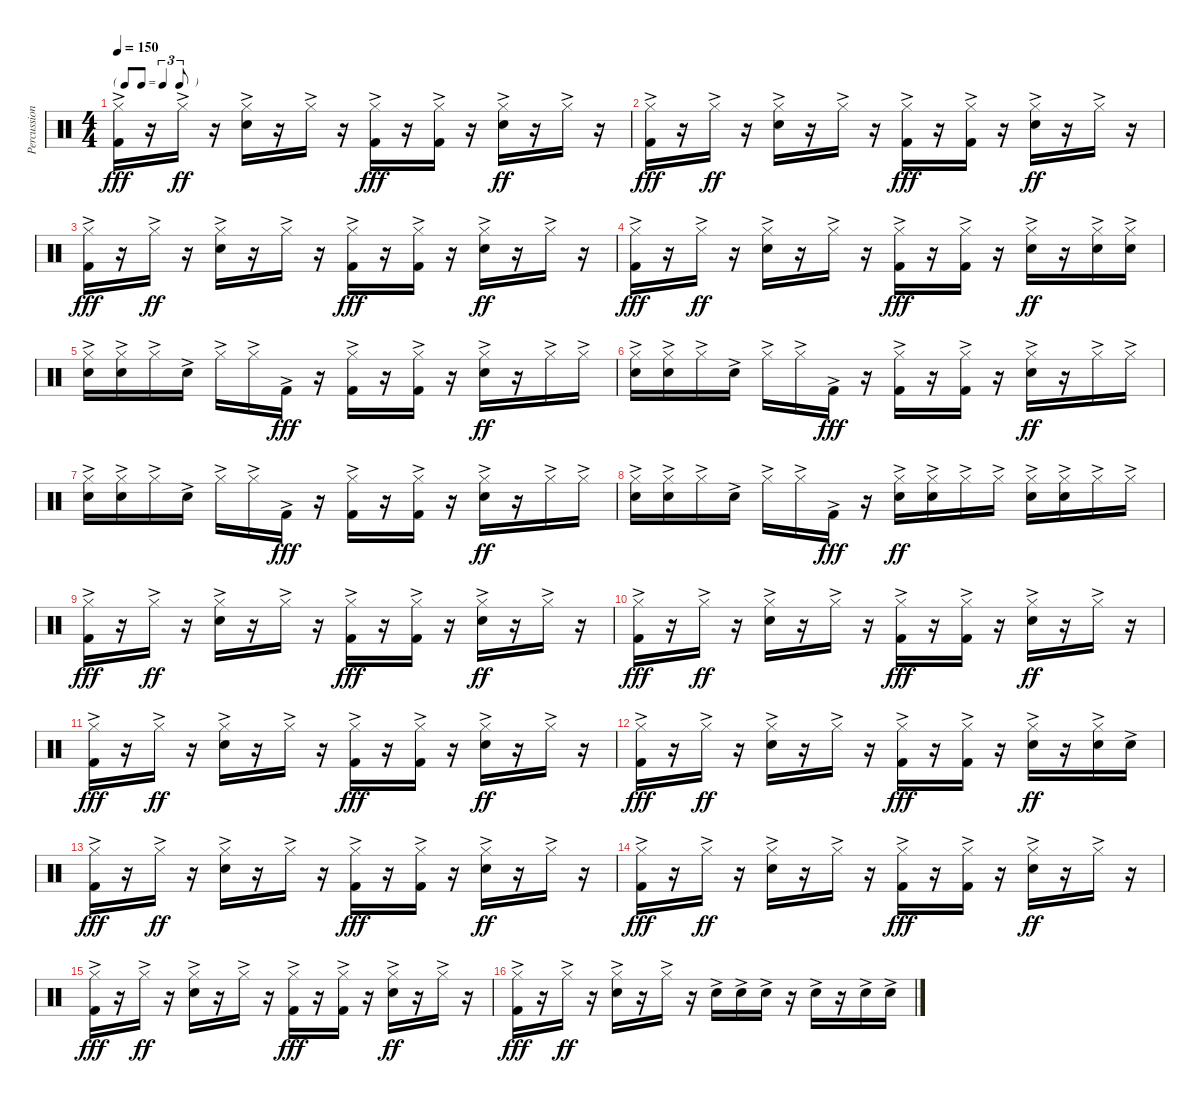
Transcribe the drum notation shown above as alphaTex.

\track ("Percussion" "Percussion") {instrument percussion}
\staff {score}
\articulation defaults
\ts (4 4)
\tf triplet8th
\tempo 150
\clef neutral
\ks c
("Hi-Hat (closed)"{ac} "Kick (hit) 2"{ac}).16{dy fff} r.16 "Hi-Hat (closed)"{ac}.16{dy ff} r.16 ("Hi-Hat (closed)"{ac} "Snare (hit) 2"{ac}).16 r.16 "Hi-Hat (closed)"{ac}.16 r.16 ("Hi-Hat (closed)"{ac} "Kick (hit) 2"{ac}).16{dy fff} r.16 ("Hi-Hat (closed)"{ac} "Kick (hit) 2"{ac}).16 r.16 ("Hi-Hat (closed)"{ac} "Snare (hit) 2"{ac}).16{dy ff} r.16 "Hi-Hat (closed)"{ac}.16 r.16 |
("Hi-Hat (closed)"{ac} "Kick (hit) 2"{ac}).16{dy fff} r.16 "Hi-Hat (closed)"{ac}.16{dy ff} r.16 ("Hi-Hat (closed)"{ac} "Snare (hit) 2"{ac}).16 r.16 "Hi-Hat (closed)"{ac}.16 r.16 ("Hi-Hat (closed)"{ac} "Kick (hit) 2"{ac}).16{dy fff} r.16 ("Hi-Hat (closed)"{ac} "Kick (hit) 2"{ac}).16 r.16 ("Hi-Hat (closed)"{ac} "Snare (hit) 2"{ac}).16{dy ff} r.16 "Hi-Hat (closed)"{ac}.16 r.16 |
("Hi-Hat (closed)"{ac} "Kick (hit) 2"{ac}).16{dy fff} r.16 "Hi-Hat (closed)"{ac}.16{dy ff} r.16 ("Hi-Hat (closed)"{ac} "Snare (hit) 2"{ac}).16 r.16 "Hi-Hat (closed)"{ac}.16 r.16 ("Hi-Hat (closed)"{ac} "Kick (hit) 2"{ac}).16{dy fff} r.16 ("Hi-Hat (closed)"{ac} "Kick (hit) 2"{ac}).16 r.16 ("Hi-Hat (closed)"{ac} "Snare (hit) 2"{ac}).16{dy ff} r.16 "Hi-Hat (closed)"{ac}.16 r.16 |
("Hi-Hat (closed)"{ac} "Kick (hit) 2"{ac}).16{dy fff} r.16 "Hi-Hat (closed)"{ac}.16{dy ff} r.16 ("Hi-Hat (closed)"{ac} "Snare (hit) 2"{ac}).16 r.16 "Hi-Hat (closed)"{ac}.16 r.16 ("Hi-Hat (closed)"{ac} "Kick (hit) 2"{ac}).16{dy fff} r.16 ("Hi-Hat (closed)"{ac} "Kick (hit) 2"{ac}).16 r.16 ("Hi-Hat (closed)"{ac} "Snare (hit) 2"{ac}).16{dy ff} r.16 ("Hi-Hat (closed)" "Snare (hit) 2"{ac}).16 ("Hi-Hat (closed)" "Snare (hit) 2"{ac}).16 |
("Hi-Hat (closed)"{ac} "Snare (hit) 2"{ac}).16 ("Hi-Hat (closed)"{ac} "Snare (hit) 2"{ac}).16 "Hi-Hat (closed)"{ac}.16 "Snare (hit) 2"{ac}.16 "Hi-Hat (closed)"{ac}.16 "Hi-Hat (closed)"{ac}.16 "Kick (hit) 2"{ac}.16{dy fff} r.16 ("Hi-Hat (closed)"{ac} "Kick (hit) 2"{ac}).16 r.16 ("Hi-Hat (closed)"{ac} "Kick (hit) 2"{ac}).16 r.16 ("Hi-Hat (closed)"{ac} "Snare (hit) 2"{ac}).16{dy ff} r.16 "Hi-Hat (closed)"{ac}.16 "Hi-Hat (closed)"{ac}.16 |
("Hi-Hat (closed)"{ac} "Snare (hit) 2"{ac}).16 ("Hi-Hat (closed)"{ac} "Snare (hit) 2"{ac}).16 "Hi-Hat (closed)"{ac}.16 "Snare (hit) 2"{ac}.16 "Hi-Hat (closed)"{ac}.16 "Hi-Hat (closed)"{ac}.16 "Kick (hit) 2"{ac}.16{dy fff} r.16 ("Hi-Hat (closed)"{ac} "Kick (hit) 2"{ac}).16 r.16 ("Hi-Hat (closed)"{ac} "Kick (hit) 2"{ac}).16 r.16 ("Hi-Hat (closed)"{ac} "Snare (hit) 2"{ac}).16{dy ff} r.16 "Hi-Hat (closed)"{ac}.16 "Hi-Hat (closed)"{ac}.16 |
("Hi-Hat (closed)"{ac} "Snare (hit) 2"{ac}).16 ("Hi-Hat (closed)"{ac} "Snare (hit) 2"{ac}).16 "Hi-Hat (closed)"{ac}.16 "Snare (hit) 2"{ac}.16 "Hi-Hat (closed)"{ac}.16 "Hi-Hat (closed)"{ac}.16 "Kick (hit) 2"{ac}.16{dy fff} r.16 ("Hi-Hat (closed)"{ac} "Kick (hit) 2"{ac}).16 r.16 ("Hi-Hat (closed)"{ac} "Kick (hit) 2"{ac}).16 r.16 ("Hi-Hat (closed)"{ac} "Snare (hit) 2"{ac}).16{dy ff} r.16 "Hi-Hat (closed)"{ac}.16 "Hi-Hat (closed)"{ac}.16 |
("Hi-Hat (closed)"{ac} "Snare (hit) 2"{ac}).16 ("Hi-Hat (closed)"{ac} "Snare (hit) 2"{ac}).16 "Hi-Hat (closed)"{ac}.16 "Snare (hit) 2"{ac}.16 "Hi-Hat (closed)"{ac}.16 "Hi-Hat (closed)"{ac}.16 "Kick (hit) 2"{ac}.16{dy fff} r.16 ("Hi-Hat (closed)"{ac} "Snare (hit) 2"{ac}).16{dy ff} ("Hi-Hat (closed)"{ac} "Snare (hit) 2"{ac}).16 "Hi-Hat (closed)"{ac}.16 "Hi-Hat (closed)"{ac}.16 ("Hi-Hat (closed)"{ac} "Snare (hit) 2"{ac}).16 ("Hi-Hat (closed)"{ac} "Snare (hit) 2"{ac}).16 "Hi-Hat (closed)"{ac}.16 "Hi-Hat (closed)"{ac}.16 |
("Hi-Hat (closed)"{ac} "Kick (hit) 2"{ac}).16{dy fff} r.16 "Hi-Hat (closed)"{ac}.16{dy ff} r.16 ("Hi-Hat (closed)"{ac} "Snare (hit) 2"{ac}).16 r.16 "Hi-Hat (closed)"{ac}.16 r.16 ("Hi-Hat (closed)"{ac} "Kick (hit) 2"{ac}).16{dy fff} r.16 ("Hi-Hat (closed)"{ac} "Kick (hit) 2"{ac}).16 r.16 ("Hi-Hat (closed)"{ac} "Snare (hit) 2"{ac}).16{dy ff} r.16 "Hi-Hat (closed)"{ac}.16 r.16 |
("Hi-Hat (closed)"{ac} "Kick (hit) 2"{ac}).16{dy fff} r.16 "Hi-Hat (closed)"{ac}.16{dy ff} r.16 ("Hi-Hat (closed)"{ac} "Snare (hit) 2"{ac}).16 r.16 "Hi-Hat (closed)"{ac}.16 r.16 ("Hi-Hat (closed)"{ac} "Kick (hit) 2"{ac}).16{dy fff} r.16 ("Hi-Hat (closed)"{ac} "Kick (hit) 2"{ac}).16 r.16 ("Hi-Hat (closed)"{ac} "Snare (hit) 2"{ac}).16{dy ff} r.16 "Hi-Hat (closed)"{ac}.16 r.16 |
("Hi-Hat (closed)"{ac} "Kick (hit) 2"{ac}).16{dy fff} r.16 "Hi-Hat (closed)"{ac}.16{dy ff} r.16 ("Hi-Hat (closed)"{ac} "Snare (hit) 2"{ac}).16 r.16 "Hi-Hat (closed)"{ac}.16 r.16 ("Hi-Hat (closed)"{ac} "Kick (hit) 2"{ac}).16{dy fff} r.16 ("Hi-Hat (closed)"{ac} "Kick (hit) 2"{ac}).16 r.16 ("Hi-Hat (closed)"{ac} "Snare (hit) 2"{ac}).16{dy ff} r.16 "Hi-Hat (closed)"{ac}.16 r.16 |
("Hi-Hat (closed)"{ac} "Kick (hit) 2"{ac}).16{dy fff} r.16 "Hi-Hat (closed)"{ac}.16{dy ff} r.16 ("Hi-Hat (closed)"{ac} "Snare (hit) 2"{ac}).16 r.16 "Hi-Hat (closed)"{ac}.16 r.16 ("Hi-Hat (closed)"{ac} "Kick (hit) 2"{ac}).16{dy fff} r.16 ("Hi-Hat (closed)"{ac} "Kick (hit) 2"{ac}).16 r.16 ("Hi-Hat (closed)"{ac} "Snare (hit) 2"{ac}).16{dy ff} r.16 ("Hi-Hat (closed)"{ac} "Snare (hit) 2"{ac}).16 "Snare (hit) 2"{ac}.16 |
("Hi-Hat (closed)"{ac} "Kick (hit) 2"{ac}).16{dy fff} r.16 "Hi-Hat (closed)"{ac}.16{dy ff} r.16 ("Hi-Hat (closed)"{ac} "Snare (hit) 2"{ac}).16 r.16 "Hi-Hat (closed)"{ac}.16 r.16 ("Hi-Hat (closed)"{ac} "Kick (hit) 2"{ac}).16{dy fff} r.16 ("Hi-Hat (closed)"{ac} "Kick (hit) 2"{ac}).16 r.16 ("Hi-Hat (closed)"{ac} "Snare (hit) 2"{ac}).16{dy ff} r.16 "Hi-Hat (closed)"{ac}.16 r.16 |
("Hi-Hat (closed)"{ac} "Kick (hit) 2"{ac}).16{dy fff} r.16 "Hi-Hat (closed)"{ac}.16{dy ff} r.16 ("Hi-Hat (closed)"{ac} "Snare (hit) 2"{ac}).16 r.16 "Hi-Hat (closed)"{ac}.16 r.16 ("Hi-Hat (closed)"{ac} "Kick (hit) 2"{ac}).16{dy fff} r.16 ("Hi-Hat (closed)"{ac} "Kick (hit) 2"{ac}).16 r.16 ("Hi-Hat (closed)"{ac} "Snare (hit) 2"{ac}).16{dy ff} r.16 "Hi-Hat (closed)"{ac}.16 r.16 |
("Hi-Hat (closed)"{ac} "Kick (hit) 2"{ac}).16{dy fff} r.16 "Hi-Hat (closed)"{ac}.16{dy ff} r.16 ("Hi-Hat (closed)"{ac} "Snare (hit) 2"{ac}).16 r.16 "Hi-Hat (closed)"{ac}.16 r.16 ("Hi-Hat (closed)"{ac} "Kick (hit) 2"{ac}).16{dy fff} r.16 ("Hi-Hat (closed)"{ac} "Kick (hit) 2"{ac}).16 r.16 ("Hi-Hat (closed)"{ac} "Snare (hit) 2"{ac}).16{dy ff} r.16 "Hi-Hat (closed)"{ac}.16 r.16 |
("Hi-Hat (closed)"{ac} "Kick (hit) 2"{ac}).16{dy fff} r.16 "Hi-Hat (closed)"{ac}.16{dy ff} r.16 ("Hi-Hat (closed)"{ac} "Snare (hit) 2"{ac}).16 r.16 "Hi-Hat (closed)"{ac}.16 r.16 "Snare (hit) 2"{ac}.16 "Snare (hit) 2"{ac}.16 "Snare (hit) 2"{ac}.16 r.16 "Snare (hit) 2"{ac}.16 r.16 "Snare (hit) 2"{ac}.16 "Snare (hit) 2"{ac}.16
